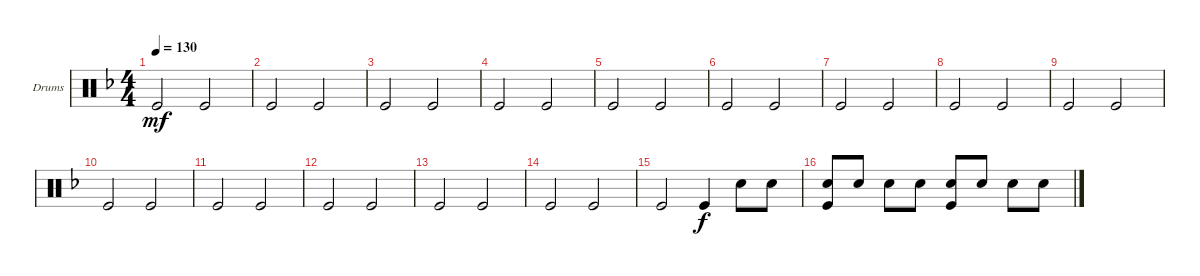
\defaultSystemsLayout 4
\bracketExtendMode groupsimilarinstruments
\firstSystemTrackNameOrientation horizontal
\otherSystemsTrackNameOrientation horizontal
\track ("Drumkit" "Drums") {instrument percussion}
\staff {score}
\articulation defaults
\ts (4 4)
\tempo 130
\clef neutral
\ks dminor "Kick (hit)".2{dy mf} "Kick (hit)".2
|
"Kick (hit)".2 "Kick (hit)".2 |
"Kick (hit)".2 "Kick (hit)".2 |
"Kick (hit)".2 "Kick (hit)".2 |
"Kick (hit)".2 "Kick (hit)".2 |
"Kick (hit)".2 "Kick (hit)".2 |
"Kick (hit)".2 "Kick (hit)".2 |
"Kick (hit)".2 "Kick (hit)".2 |
"Kick (hit)".2 "Kick (hit)".2 |
"Kick (hit)".2 "Kick (hit)".2 |
"Kick (hit)".2 "Kick (hit)".2 |
"Kick (hit)".2 "Kick (hit)".2 |
"Kick (hit)".2 "Kick (hit)".2 |
"Kick (hit)".2 "Kick (hit)".2 |
"Kick (hit)".2 "Kick (hit)".4{dy f} "Snare (hit) 2".8 "Snare (hit) 2".8 |
("Snare (hit) 2" "Kick (hit)").8 "Snare (hit) 2".8 "Snare (hit) 2".8 "Snare (hit) 2".8 ("Snare (hit) 2" "Kick (hit)").8 "Snare (hit) 2".8 "Snare (hit) 2".8 "Snare (hit) 2".8
